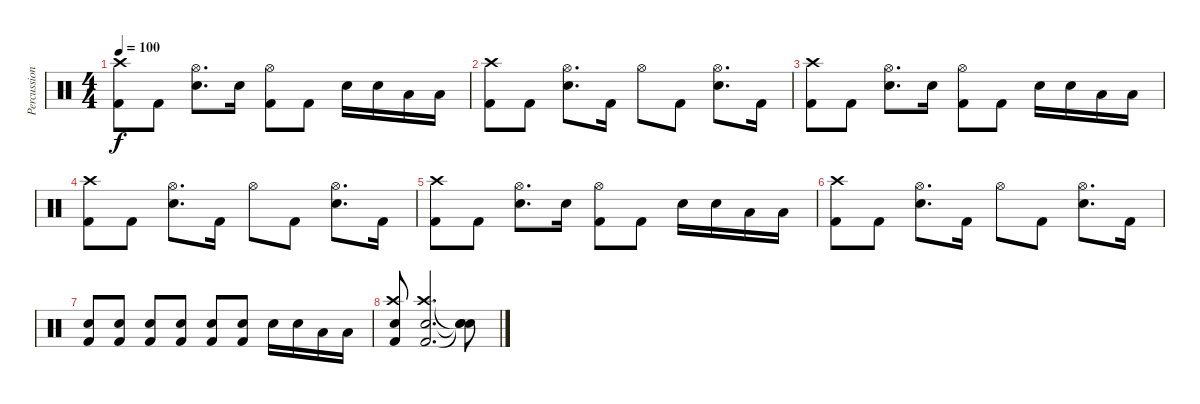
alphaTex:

\track ("Percussion" "Percussion") {instrument percussion}
\staff {score}
\articulation defaults
\ts (4 4)
\tempo 100
\clef neutral
\ks c
("Kick (hit) 2" "Crash high (hit)").8{dy f} "Kick (hit) 2".8 ("Hi-Hat (open)" "Electric Snare (hit)").8{d} "Electric Snare (hit)".16 ("Kick (hit) 2" "Hi-Hat (open)").8 "Kick (hit) 2".8 "Electric Snare (hit)".16 "Electric Snare (hit)".16 "Low Tom (hit)".16 "Low Tom (hit)".16 |
("Kick (hit) 2" "Crash high (hit)").8 "Kick (hit) 2".8 ("Electric Snare (hit)" "Hi-Hat (open)").8{d} "Kick (hit) 2".16 "Hi-Hat (open)".8 "Kick (hit) 2".8 ("Hi-Hat (open)" "Electric Snare (hit)").8{d} "Kick (hit) 2".16 |
("Kick (hit) 2" "Crash high (hit)").8 "Kick (hit) 2".8 ("Hi-Hat (open)" "Electric Snare (hit)").8{d} "Electric Snare (hit)".16 ("Kick (hit) 2" "Hi-Hat (open)").8 "Kick (hit) 2".8 "Electric Snare (hit)".16 "Electric Snare (hit)".16 "Low Tom (hit)".16 "Low Tom (hit)".16 |
("Kick (hit) 2" "Crash high (hit)").8 "Kick (hit) 2".8 ("Electric Snare (hit)" "Hi-Hat (open)").8{d} "Kick (hit) 2".16 "Hi-Hat (open)".8 "Kick (hit) 2".8 ("Hi-Hat (open)" "Electric Snare (hit)").8{d} "Kick (hit) 2".16 |
("Kick (hit) 2" "Crash high (hit)").8 "Kick (hit) 2".8 ("Hi-Hat (open)" "Electric Snare (hit)").8{d} "Electric Snare (hit)".16 ("Kick (hit) 2" "Hi-Hat (open)").8 "Kick (hit) 2".8 "Electric Snare (hit)".16 "Electric Snare (hit)".16 "Low Tom (hit)".16 "Low Tom (hit)".16 |
("Kick (hit) 2" "Crash high (hit)").8 "Kick (hit) 2".8 ("Electric Snare (hit)" "Hi-Hat (open)").8{d} "Kick (hit) 2".16 "Hi-Hat (open)".8 "Kick (hit) 2".8 ("Hi-Hat (open)" "Electric Snare (hit)").8{d} "Kick (hit) 2".16 |
("Electric Snare (hit)" "Kick (hit) 2").8 ("Electric Snare (hit)" "Kick (hit) 2").8 ("Electric Snare (hit)" "Kick (hit) 2").8 ("Electric Snare (hit)" "Kick (hit) 2").8 ("Electric Snare (hit)" "Kick (hit) 2").8 ("Electric Snare (hit)" "Kick (hit) 2").8 "Electric Snare (hit)".16 "Electric Snare (hit)".16 "Low Tom (hit)".16 "Low Tom (hit)".16 |
("Crash high (hit)" "Electric Snare (hit)" "Kick (hit) 2").8 ("Crash high (hit)" "Electric Snare (hit)" "Kick (hit) 2").2{d} ("Snare (hit)"{t} "Snare (hit)"{t} "Snare (hit)"{t}).8
